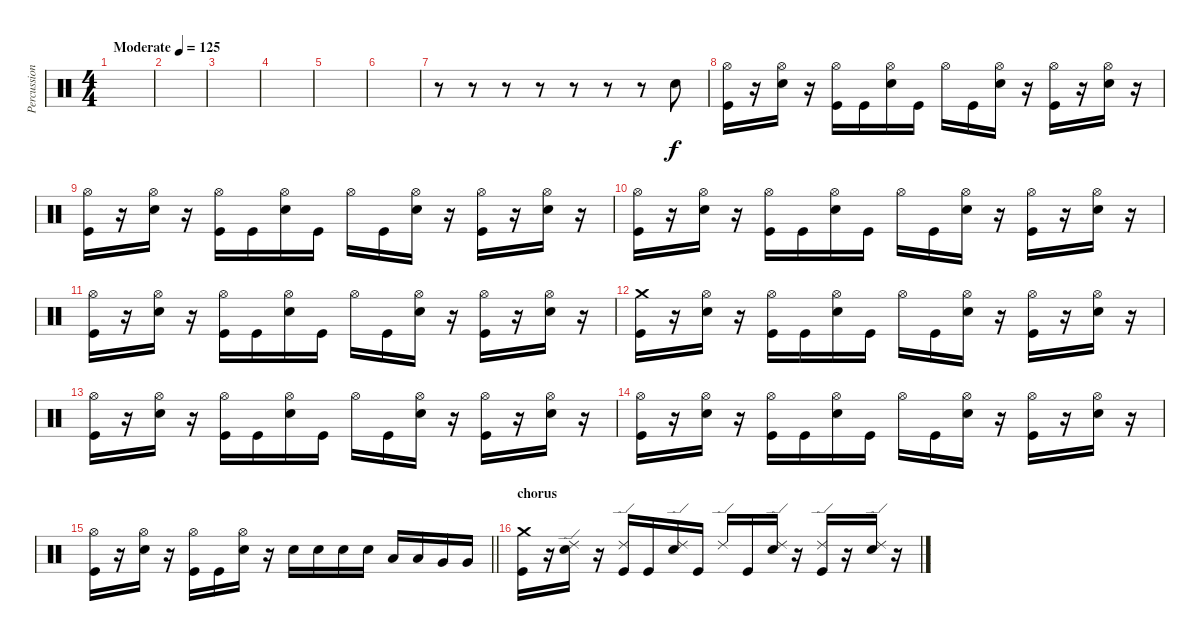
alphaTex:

\track ("Percussion" "Percussion") {instrument percussion}
\staff {score}
\articulation defaults
\ts (4 4)
\tempo (125 "Moderate")
\clef neutral
\ks c
|
|
|
|
|
|
r.8 r.8 r.8 r.8 r.8 r.8 r.8 "Snare (hit) 2".8 |
("Hi-Hat (open)" "Kick (hit)").16 r.16 ("Hi-Hat (open)" "Snare (hit) 2").16 r.16 ("Hi-Hat (open)" "Kick (hit)").16 "Kick (hit)".16 ("Hi-Hat (open)" "Snare (hit) 2").16 "Kick (hit)".16 "Hi-Hat (open)".16 "Kick (hit)".16 ("Hi-Hat (open)" "Snare (hit) 2").16 r.16 ("Hi-Hat (open)" "Kick (hit)").16 r.16 ("Hi-Hat (open)" "Snare (hit) 2").16 r.16 |
("Hi-Hat (open)" "Kick (hit)").16 r.16 ("Hi-Hat (open)" "Snare (hit) 2").16 r.16 ("Hi-Hat (open)" "Kick (hit)").16 "Kick (hit)".16 ("Hi-Hat (open)" "Snare (hit) 2").16 "Kick (hit)".16 "Hi-Hat (open)".16 "Kick (hit)".16 ("Hi-Hat (open)" "Snare (hit) 2").16 r.16 ("Hi-Hat (open)" "Kick (hit)").16 r.16 ("Hi-Hat (open)" "Snare (hit) 2").16 r.16 |
("Hi-Hat (open)" "Kick (hit)").16 r.16 ("Hi-Hat (open)" "Snare (hit) 2").16 r.16 ("Hi-Hat (open)" "Kick (hit)").16 "Kick (hit)".16 ("Hi-Hat (open)" "Snare (hit) 2").16 "Kick (hit)".16 "Hi-Hat (open)".16 "Kick (hit)".16 ("Hi-Hat (open)" "Snare (hit) 2").16 r.16 ("Hi-Hat (open)" "Kick (hit)").16 r.16 ("Hi-Hat (open)" "Snare (hit) 2").16 r.16 |
("Hi-Hat (open)" "Kick (hit)").16 r.16 ("Hi-Hat (open)" "Snare (hit) 2").16 r.16 ("Hi-Hat (open)" "Kick (hit)").16 "Kick (hit)".16 ("Hi-Hat (open)" "Snare (hit) 2").16 "Kick (hit)".16 "Hi-Hat (open)".16 "Kick (hit)".16 ("Hi-Hat (open)" "Snare (hit) 2").16 r.16 ("Hi-Hat (open)" "Kick (hit)").16 r.16 ("Hi-Hat (open)" "Snare (hit) 2").16 r.16 |
("Crash medium (hit)" "Kick (hit)").16 r.16 ("Hi-Hat (open)" "Snare (hit) 2").16 r.16 ("Hi-Hat (open)" "Kick (hit)").16 "Kick (hit)".16 ("Hi-Hat (open)" "Snare (hit) 2").16 "Kick (hit)".16 "Hi-Hat (open)".16 "Kick (hit)".16 ("Hi-Hat (open)" "Snare (hit) 2").16 r.16 ("Hi-Hat (open)" "Kick (hit)").16 r.16 ("Hi-Hat (open)" "Snare (hit) 2").16 r.16 |
("Hi-Hat (open)" "Kick (hit)").16 r.16 ("Hi-Hat (open)" "Snare (hit) 2").16 r.16 ("Hi-Hat (open)" "Kick (hit)").16 "Kick (hit)".16 ("Hi-Hat (open)" "Snare (hit) 2").16 "Kick (hit)".16 "Hi-Hat (open)".16 "Kick (hit)".16 ("Hi-Hat (open)" "Snare (hit) 2").16 r.16 ("Hi-Hat (open)" "Kick (hit)").16 r.16 ("Hi-Hat (open)" "Snare (hit) 2").16 r.16 |
("Hi-Hat (open)" "Kick (hit)").16 r.16 ("Hi-Hat (open)" "Snare (hit) 2").16 r.16 ("Hi-Hat (open)" "Kick (hit)").16 "Kick (hit)".16 ("Hi-Hat (open)" "Snare (hit) 2").16 "Kick (hit)".16 "Hi-Hat (open)".16 "Kick (hit)".16 ("Hi-Hat (open)" "Snare (hit) 2").16 r.16 ("Hi-Hat (open)" "Kick (hit)").16 r.16 ("Hi-Hat (open)" "Snare (hit) 2").16 r.16 |
\barLineRight lightlight
("Hi-Hat (open)" "Kick (hit)").16 r.16 ("Hi-Hat (open)" "Snare (hit) 2").16 r.16 ("Hi-Hat (open)" "Kick (hit)").16 "Kick (hit)".16 ("Hi-Hat (open)" "Snare (hit) 2").16 r.16 "Snare (hit) 2".16 "Snare (hit) 2".16 "Snare (hit) 2".16 "Snare (hit) 2".16 "Low Tom (hit)".16 "Low Tom (hit)".16 "Very Low Tom (hit)".16 "Very Low Tom (hit)".16 |
\section ("" "chorus")
("Crash medium (hit)" "Kick (hit)").16 r.16 ("Ride (edge) 2" "Snare (hit) 2").16 r.16 ("Ride (edge) 2" "Kick (hit)").16 "Kick (hit)".16 ("Ride (edge) 2" "Snare (hit) 2").16 "Kick (hit)".16 "Ride (edge) 2".16 "Kick (hit)".16 ("Ride (edge) 2" "Snare (hit) 2").16 r.16 ("Ride (edge) 2" "Kick (hit)").16 r.16 ("Ride (edge) 2" "Snare (hit) 2").16 r.16
